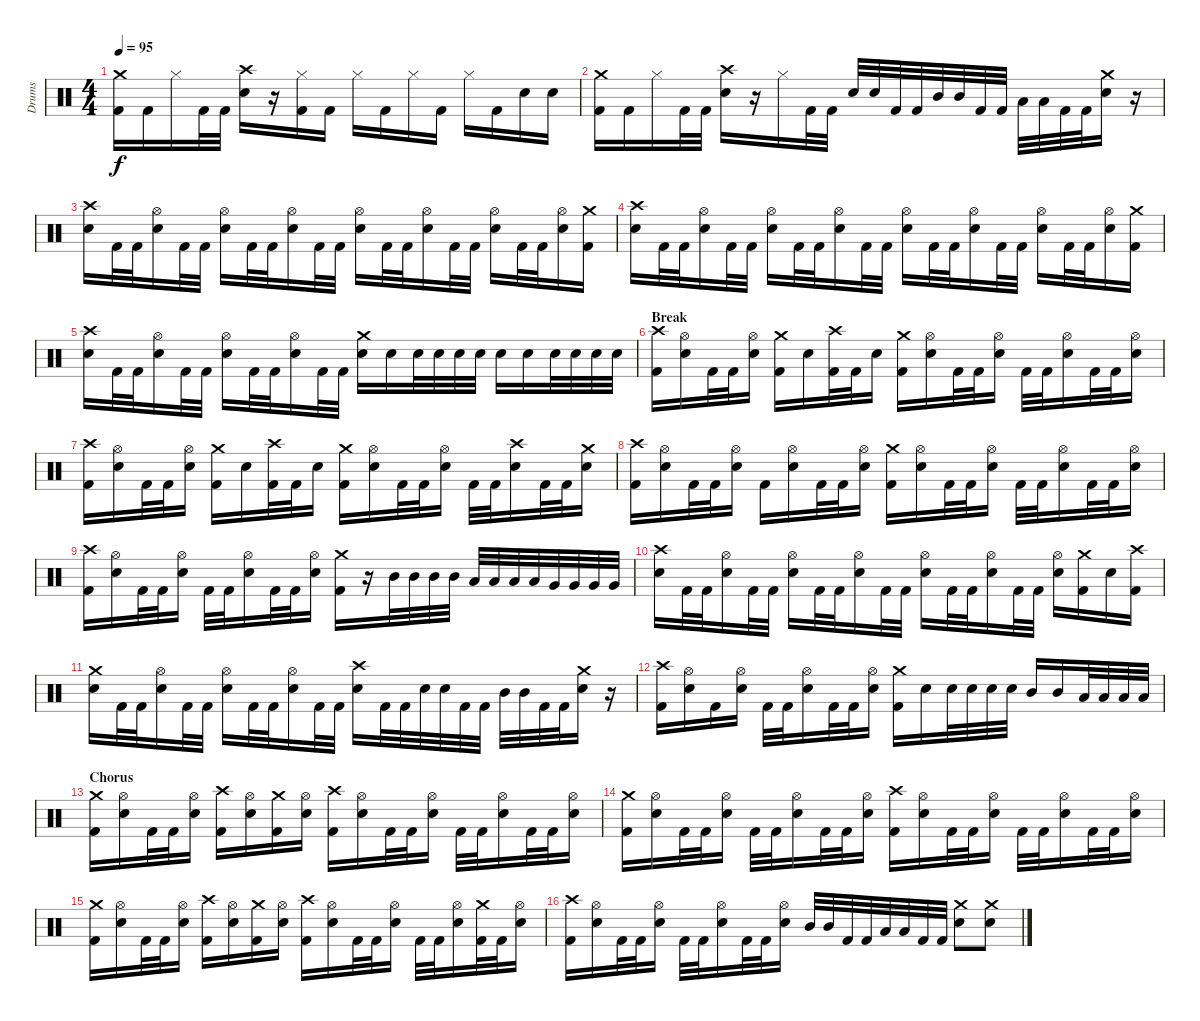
\track ("Drums" "Drums") {instrument percussion}
\staff {score}
\articulation defaults
\ts (4 4)
\tempo 95
\clef neutral
\ks c
("Crash medium (hit)" "Kick (hit) 2").16{dy f} "Kick (hit) 2".16 "Hi-Hat (closed)".16 "Kick (hit) 2".32 "Kick (hit) 2".32 ("Crash high (hit)" "Snare (hit) 2").16 r.16 ("Hi-Hat (closed)" "Kick (hit) 2").16 "Kick (hit) 2".16 "Hi-Hat (closed)".16 "Kick (hit) 2".16 "Hi-Hat (closed)".16 "Kick (hit) 2".16 "Hi-Hat (closed)".16 "Kick (hit) 2".16 "Snare (hit) 2".16 "Snare (hit) 2".16 |
("Crash medium (hit)" "Kick (hit) 2").16 "Kick (hit) 2".16 "Hi-Hat (closed)".16 "Kick (hit) 2".32 "Kick (hit) 2".32 ("Crash high (hit)" "Snare (hit) 2").16 r.16 "Hi-Hat (closed)".16 "Kick (hit) 2".32 "Kick (hit) 2".32 "Snare (hit) 2".32 "Snare (hit) 2".32 "Kick (hit) 2".32 "Kick (hit) 2".32 "Mid Tom (hit)".32 "Mid Tom (hit)".32 "Kick (hit) 2".32 "Kick (hit) 2".32 "Low Tom (hit)".32 "Low Tom (hit)".32 "Kick (hit) 2".32 "Kick (hit) 2".32 ("Crash medium (hit)" "Snare (hit) 2").16 r.16 |
\section ("" "")
("Crash high (hit)" "Snare (hit) 2").16 "Kick (hit) 2".32 "Kick (hit) 2".32 ("Hi-Hat (open)" "Snare (hit) 2").16 "Kick (hit) 2".32 "Kick (hit) 2".32 ("Hi-Hat (open)" "Snare (hit) 2").16 "Kick (hit) 2".32 "Kick (hit) 2".32 ("Hi-Hat (open)" "Snare (hit) 2").16 "Kick (hit) 2".32 "Kick (hit) 2".32 ("Hi-Hat (open)" "Snare (hit) 2").16 "Kick (hit) 2".32 "Kick (hit) 2".32 ("Hi-Hat (open)" "Snare (hit) 2").16 "Kick (hit) 2".32 "Kick (hit) 2".32 ("Hi-Hat (open)" "Snare (hit) 2").16 "Kick (hit) 2".32 "Kick (hit) 2".32 ("Hi-Hat (open)" "Snare (hit) 2").16 ("Crash medium (hit)" "Kick (hit) 2").16 |
("Crash high (hit)" "Snare (hit) 2").16 "Kick (hit) 2".32 "Kick (hit) 2".32 ("Hi-Hat (open)" "Snare (hit) 2").16 "Kick (hit) 2".32 "Kick (hit) 2".32 ("Hi-Hat (open)" "Snare (hit) 2").16 "Kick (hit) 2".32 "Kick (hit) 2".32 ("Hi-Hat (open)" "Snare (hit) 2").16 "Kick (hit) 2".32 "Kick (hit) 2".32 ("Hi-Hat (open)" "Snare (hit) 2").16 "Kick (hit) 2".32 "Kick (hit) 2".32 ("Hi-Hat (open)" "Snare (hit) 2").16 "Kick (hit) 2".32 "Kick (hit) 2".32 ("Hi-Hat (open)" "Snare (hit) 2").16 "Kick (hit) 2".32 "Kick (hit) 2".32 ("Hi-Hat (open)" "Snare (hit) 2").16 ("Crash medium (hit)" "Kick (hit) 2").16 |
("Crash high (hit)" "Snare (hit) 2").16 "Kick (hit) 2".32 "Kick (hit) 2".32 ("Hi-Hat (open)" "Snare (hit) 2").16 "Kick (hit) 2".32 "Kick (hit) 2".32 ("Hi-Hat (open)" "Snare (hit) 2").16 "Kick (hit) 2".32 "Kick (hit) 2".32 ("Hi-Hat (open)" "Snare (hit) 2").16 "Kick (hit) 2".32 "Kick (hit) 2".32 ("Crash medium (hit)" "Snare (hit) 2").16 "Snare (hit) 2".16 "Snare (hit) 2".32 "Snare (hit) 2".32 "Snare (hit) 2".32 "Snare (hit) 2".32 "Snare (hit) 2".16 "Snare (hit) 2".16 "Snare (hit) 2".32 "Snare (hit) 2".32 "Snare (hit) 2".32 "Snare (hit) 2".32 |
\section ("" "Break")
("Crash high (hit)" "Kick (hit) 2").16 ("Hi-Hat (open)" "Snare (hit) 2").16 "Kick (hit) 2".32 "Kick (hit) 2".32 ("Hi-Hat (open)" "Snare (hit) 2").16 ("Crash medium (hit)" "Kick (hit) 2").16 "Snare (hit) 2".16 ("Crash high (hit)" "Kick (hit) 2").32 "Kick (hit) 2".32 "Snare (hit) 2".16 ("Crash medium (hit)" "Kick (hit) 2").16 ("Hi-Hat (open)" "Snare (hit) 2").16 "Kick (hit) 2".32 "Kick (hit) 2".32 ("Hi-Hat (open)" "Snare (hit) 2").16 "Kick (hit) 2".32 "Kick (hit) 2".32 ("Hi-Hat (open)" "Snare (hit) 2").16 "Kick (hit) 2".32 "Kick (hit) 2".32 ("Hi-Hat (open)" "Snare (hit) 2").16 |
("Crash high (hit)" "Kick (hit) 2").16 ("Hi-Hat (open)" "Snare (hit) 2").16 "Kick (hit) 2".32 "Kick (hit) 2".32 ("Hi-Hat (open)" "Snare (hit) 2").16 ("Crash medium (hit)" "Kick (hit) 2").16 "Snare (hit) 2".16 ("Crash high (hit)" "Kick (hit) 2").32 "Kick (hit) 2".32 "Snare (hit) 2".16 ("Crash medium (hit)" "Kick (hit) 2").16 ("Hi-Hat (open)" "Snare (hit) 2").16 "Kick (hit) 2".32 "Kick (hit) 2".32 ("Hi-Hat (open)" "Snare (hit) 2").16 "Kick (hit) 2".32 "Kick (hit) 2".32 ("Crash high (hit)" "Snare (hit) 2").16 "Kick (hit) 2".32 "Kick (hit) 2".32 ("Crash medium (hit)" "Snare (hit) 2").16 |
("Crash high (hit)" "Kick (hit) 2").16 ("Hi-Hat (open)" "Snare (hit) 2").16 "Kick (hit) 2".32 "Kick (hit) 2".32 ("Hi-Hat (open)" "Snare (hit) 2").16 "Kick (hit) 2".16 ("Hi-Hat (open)" "Snare (hit) 2").16 "Kick (hit) 2".32 "Kick (hit) 2".32 ("Hi-Hat (open)" "Snare (hit) 2").16 ("Crash medium (hit)" "Kick (hit) 2").16 ("Hi-Hat (open)" "Snare (hit) 2").16 "Kick (hit) 2".32 "Kick (hit) 2".32 ("Hi-Hat (open)" "Snare (hit) 2").16 "Kick (hit) 2".32 "Kick (hit) 2".32 ("Hi-Hat (open)" "Snare (hit) 2").16 "Kick (hit) 2".32 "Kick (hit) 2".32 ("Hi-Hat (open)" "Snare (hit) 2").16 |
("Crash high (hit)" "Kick (hit) 2").16 ("Hi-Hat (open)" "Snare (hit) 2").16 "Kick (hit) 2".32 "Kick (hit) 2".32 ("Hi-Hat (open)" "Snare (hit) 2").16 "Kick (hit) 2".32 "Kick (hit) 2".32 ("Hi-Hat (open)" "Snare (hit) 2").16 "Kick (hit) 2".32 "Kick (hit) 2".32 ("Hi-Hat (open)" "Snare (hit) 2").16 ("Crash medium (hit)" "Kick (hit) 2").16 r.16 "Mid Tom (hit)".32 "Mid Tom (hit)".32 "Mid Tom (hit)".32 "Mid Tom (hit)".32 "Low Tom (hit)".32 "Low Tom (hit)".32 "Low Tom (hit)".32 "Low Tom (hit)".32 "Very Low Tom (hit)".32 "Very Low Tom (hit)".32 "Very Low Tom (hit)".32 "Very Low Tom (hit)".32 |
("Crash high (hit)" "Snare (hit) 2").16 "Kick (hit) 2".32 "Kick (hit) 2".32 ("Hi-Hat (open)" "Snare (hit) 2").16 "Kick (hit) 2".32 "Kick (hit) 2".32 ("Hi-Hat (open)" "Snare (hit) 2").16 "Kick (hit) 2".32 "Kick (hit) 2".32 ("Hi-Hat (open)" "Snare (hit) 2").16 "Kick (hit) 2".32 "Kick (hit) 2".32 ("Hi-Hat (open)" "Snare (hit) 2").16 "Kick (hit) 2".32 "Kick (hit) 2".32 ("Hi-Hat (open)" "Snare (hit) 2").16 "Kick (hit) 2".32 "Kick (hit) 2".32 ("Hi-Hat (open)" "Snare (hit) 2").16 ("Crash medium (hit)" "Kick (hit) 2").16 "Snare (hit) 2".16 ("Crash high (hit)" "Kick (hit) 2").16 |
("Crash medium (hit)" "Snare (hit) 2").16 "Kick (hit) 2".32 "Kick (hit) 2".32 ("Hi-Hat (open)" "Snare (hit) 2").16 "Kick (hit) 2".32 "Kick (hit) 2".32 ("Hi-Hat (open)" "Snare (hit) 2").16 "Kick (hit) 2".32 "Kick (hit) 2".32 ("Hi-Hat (open)" "Snare (hit) 2").16 "Kick (hit) 2".32 "Kick (hit) 2".32 ("Crash high (hit)" "Snare (hit) 2").16 "Kick (hit) 2".32 "Kick (hit) 2".32 "Snare (hit) 2".32 "Snare (hit) 2".32 "Kick (hit) 2".32 "Kick (hit) 2".32 "Mid Tom (hit)".32 "Mid Tom (hit)".32 "Kick (hit) 2".32 "Kick (hit) 2".32 ("Crash medium (hit)" "Snare (hit) 2").16 r.16 |
("Crash high (hit)" "Kick (hit) 2").16 ("Hi-Hat (open)" "Snare (hit) 2").16 "Kick (hit) 2".16 ("Hi-Hat (open)" "Snare (hit) 2").16 "Kick (hit) 2".32 "Kick (hit) 2".32 ("Hi-Hat (open)" "Snare (hit) 2").16 "Kick (hit) 2".32 "Kick (hit) 2".32 ("Hi-Hat (open)" "Snare (hit) 2").16 ("Crash medium (hit)" "Kick (hit) 2").16 "Snare (hit) 2".16 "Snare (hit) 2".32 "Snare (hit) 2".32 "Snare (hit) 2".32 "Snare (hit) 2".32 "Mid Tom (hit)".16 "Mid Tom (hit)".16 "Low Tom (hit)".32 "Low Tom (hit)".32 "Low Tom (hit)".32 "Low Tom (hit)".32 |
\section ("" "Chorus")
("Crash medium (hit)" "Kick (hit) 2").16 ("Hi-Hat (open)" "Snare (hit) 2").16 "Kick (hit) 2".32 "Kick (hit) 2".32 ("Hi-Hat (open)" "Snare (hit) 2").16 ("Crash high (hit)" "Kick (hit) 2").16 ("Hi-Hat (open)" "Snare (hit) 2").16 ("Crash medium (hit)" "Kick (hit) 2").16 ("Hi-Hat (open)" "Snare (hit) 2").16 ("Crash high (hit)" "Kick (hit) 2").16 ("Hi-Hat (open)" "Snare (hit) 2").16 "Kick (hit) 2".32 "Kick (hit) 2".32 ("Hi-Hat (open)" "Snare (hit) 2").16 "Kick (hit) 2".32 "Kick (hit) 2".32 ("Hi-Hat (open)" "Snare (hit) 2").16 "Kick (hit) 2".32 "Kick (hit) 2".32 ("Hi-Hat (open)" "Snare (hit) 2").16 |
("Crash medium (hit)" "Kick (hit) 2").16 ("Hi-Hat (open)" "Snare (hit) 2").16 "Kick (hit) 2".32 "Kick (hit) 2".32 ("Hi-Hat (open)" "Snare (hit) 2").16 "Kick (hit) 2".32 "Kick (hit) 2".32 ("Hi-Hat (open)" "Snare (hit) 2").16 "Kick (hit) 2".32 "Kick (hit) 2".32 ("Hi-Hat (open)" "Snare (hit) 2").16 ("Crash high (hit)" "Kick (hit) 2").16 ("Hi-Hat (open)" "Snare (hit) 2").16 "Kick (hit) 2".32 "Kick (hit) 2".32 ("Hi-Hat (open)" "Snare (hit) 2").16 "Kick (hit) 2".32 "Kick (hit) 2".32 ("Hi-Hat (open)" "Snare (hit) 2").16 "Kick (hit) 2".32 "Kick (hit) 2".32 ("Hi-Hat (open)" "Snare (hit) 2").16 |
("Crash medium (hit)" "Kick (hit) 2").16 ("Hi-Hat (open)" "Snare (hit) 2").16 "Kick (hit) 2".32 "Kick (hit) 2".32 ("Hi-Hat (open)" "Snare (hit) 2").16 ("Crash high (hit)" "Kick (hit) 2").16 ("Hi-Hat (open)" "Snare (hit) 2").16 ("Crash medium (hit)" "Kick (hit) 2").16 ("Hi-Hat (open)" "Snare (hit) 2").16 ("Crash high (hit)" "Kick (hit) 2").16 ("Hi-Hat (open)" "Snare (hit) 2").16 "Kick (hit) 2".32 "Kick (hit) 2".32 ("Hi-Hat (open)" "Snare (hit) 2").16 "Kick (hit) 2".32 "Kick (hit) 2".32 ("Hi-Hat (open)" "Snare (hit) 2").16 ("Crash medium (hit)" "Kick (hit) 2").32 "Kick (hit) 2".32 ("Hi-Hat (open)" "Snare (hit) 2").16 |
("Crash high (hit)" "Kick (hit) 2").16 ("Hi-Hat (open)" "Snare (hit) 2").16 "Kick (hit) 2".32 "Kick (hit) 2".32 ("Hi-Hat (open)" "Snare (hit) 2").16 "Kick (hit) 2".32 "Kick (hit) 2".32 ("Hi-Hat (open)" "Snare (hit) 2").16 "Kick (hit) 2".32 "Kick (hit) 2".32 ("Hi-Hat (open)" "Snare (hit) 2").16 "Mid Tom (hit)".32 "Mid Tom (hit)".32 "Kick (hit) 2".32 "Kick (hit) 2".32 "Low Tom (hit)".32 "Low Tom (hit)".32 "Kick (hit) 2".32 "Kick (hit) 2".32 ("Crash medium (hit)" "Snare (hit) 2").8 ("Crash medium (hit)" "Snare (hit) 2").8
